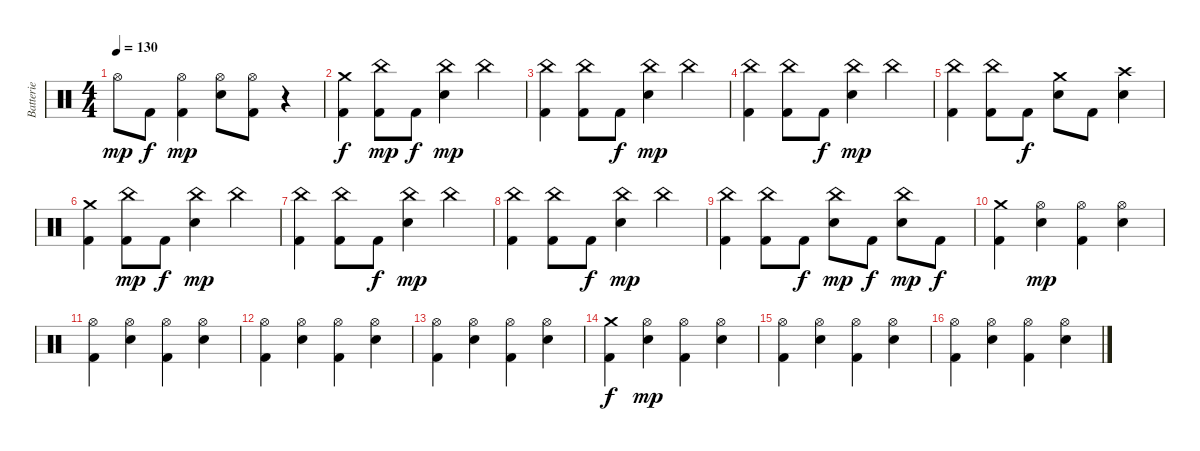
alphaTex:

\track ("Batterie" "Batterie") {instrument percussion}
\staff {score}
\articulation defaults
\ts (4 4)
\tempo 130
\clef neutral
\ks c "Hi-Hat (open)".8{dy mp} "Kick (hit) 2".8{dy f}
("Hi-Hat (open)" "Kick (hit) 2").4{dy mp} ("Hi-Hat (open)" "Electric Snare (hit)").8 ("Hi-Hat (open)" "Kick (hit) 2").8 r.4 |
("Crash medium (hit)" "Kick (hit) 2").4{dy f} ("China (hit)" "Kick (hit) 2").8{dy mp} "Kick (hit) 2".8{dy f} ("China (hit)" "Electric Snare (hit)").4{dy mp} "China (hit)".4 |
("China (hit)" "Kick (hit) 2").4 ("China (hit)" "Kick (hit) 2").8 "Kick (hit) 2".8{dy f} ("China (hit)" "Electric Snare (hit)").4{dy mp} "China (hit)".4 |
("China (hit)" "Kick (hit) 2").4 ("China (hit)" "Kick (hit) 2").8 "Kick (hit) 2".8{dy f} ("China (hit)" "Electric Snare (hit)").4{dy mp} "China (hit)".4 |
("China (hit)" "Kick (hit) 2").4 ("China (hit)" "Kick (hit) 2").8 "Kick (hit) 2".8{dy f} ("Crash medium (hit)" "Electric Snare (hit)").8 "Kick (hit) 2".8 ("Crash high (hit)" "Electric Snare (hit)").4 |
("Crash medium (hit)" "Kick (hit) 2").4 ("China (hit)" "Kick (hit) 2").8{dy mp} "Kick (hit) 2".8{dy f} ("China (hit)" "Electric Snare (hit)").4{dy mp} "China (hit)".4 |
("China (hit)" "Kick (hit) 2").4 ("China (hit)" "Kick (hit) 2").8 "Kick (hit) 2".8{dy f} ("China (hit)" "Electric Snare (hit)").4{dy mp} "China (hit)".4 |
("China (hit)" "Kick (hit) 2").4 ("China (hit)" "Kick (hit) 2").8 "Kick (hit) 2".8{dy f} ("China (hit)" "Electric Snare (hit)").4{dy mp} "China (hit)".4 |
("China (hit)" "Kick (hit) 2").4 ("China (hit)" "Kick (hit) 2").8 "Kick (hit) 2".8{dy f} ("China (hit)" "Electric Snare (hit)").8{dy mp} "Kick (hit) 2".8{dy f} ("China (hit)" "Electric Snare (hit)").8{dy mp} "Kick (hit) 2".8{dy f} |
("Crash medium (hit)" "Kick (hit) 2").4 ("Hi-Hat (open)" "Electric Snare (hit)").4{dy mp} ("Hi-Hat (open)" "Kick (hit) 2").4 ("Hi-Hat (open)" "Electric Snare (hit)").4 |
("Hi-Hat (open)" "Kick (hit) 2").4 ("Hi-Hat (open)" "Electric Snare (hit)").4 ("Hi-Hat (open)" "Kick (hit) 2").4 ("Hi-Hat (open)" "Electric Snare (hit)").4 |
("Hi-Hat (open)" "Kick (hit) 2").4 ("Hi-Hat (open)" "Electric Snare (hit)").4 ("Hi-Hat (open)" "Kick (hit) 2").4 ("Hi-Hat (open)" "Electric Snare (hit)").4 |
("Hi-Hat (open)" "Kick (hit) 2").4 ("Hi-Hat (open)" "Electric Snare (hit)").4 ("Hi-Hat (open)" "Kick (hit) 2").4 ("Hi-Hat (open)" "Electric Snare (hit)").4 |
("Crash medium (hit)" "Kick (hit) 2").4{dy f} ("Hi-Hat (open)" "Electric Snare (hit)").4{dy mp} ("Hi-Hat (open)" "Kick (hit) 2").4 ("Hi-Hat (open)" "Electric Snare (hit)").4 |
("Hi-Hat (open)" "Kick (hit) 2").4 ("Hi-Hat (open)" "Electric Snare (hit)").4 ("Hi-Hat (open)" "Kick (hit) 2").4 ("Hi-Hat (open)" "Electric Snare (hit)").4 |
("Hi-Hat (open)" "Kick (hit) 2").4 ("Hi-Hat (open)" "Electric Snare (hit)").4 ("Hi-Hat (open)" "Kick (hit) 2").4 ("Hi-Hat (open)" "Electric Snare (hit)").4
